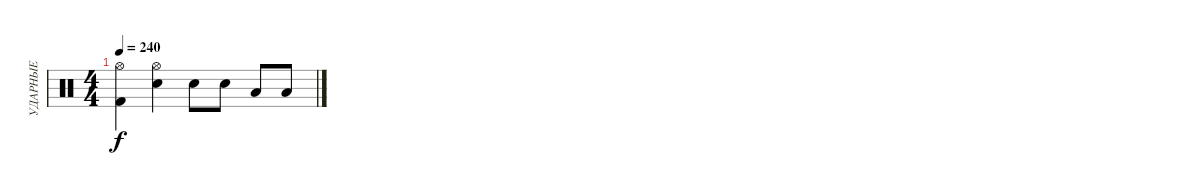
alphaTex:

\track ("УДАРНЫЕ" "УДАРНЫЕ") {instrument percussion}
\staff {score}
\articulation defaults
\ts (4 4)
\tempo 240
\clef neutral
\ks c
("Kick (hit) 2" "Hi-Hat (open)").4{dy f} ("Snare (hit) 2" "Hi-Hat (open)").4 "Snare (hit) 2".8 "Snare (hit) 2".8 "Low Tom (hit)".8 "Low Tom (hit)".8
